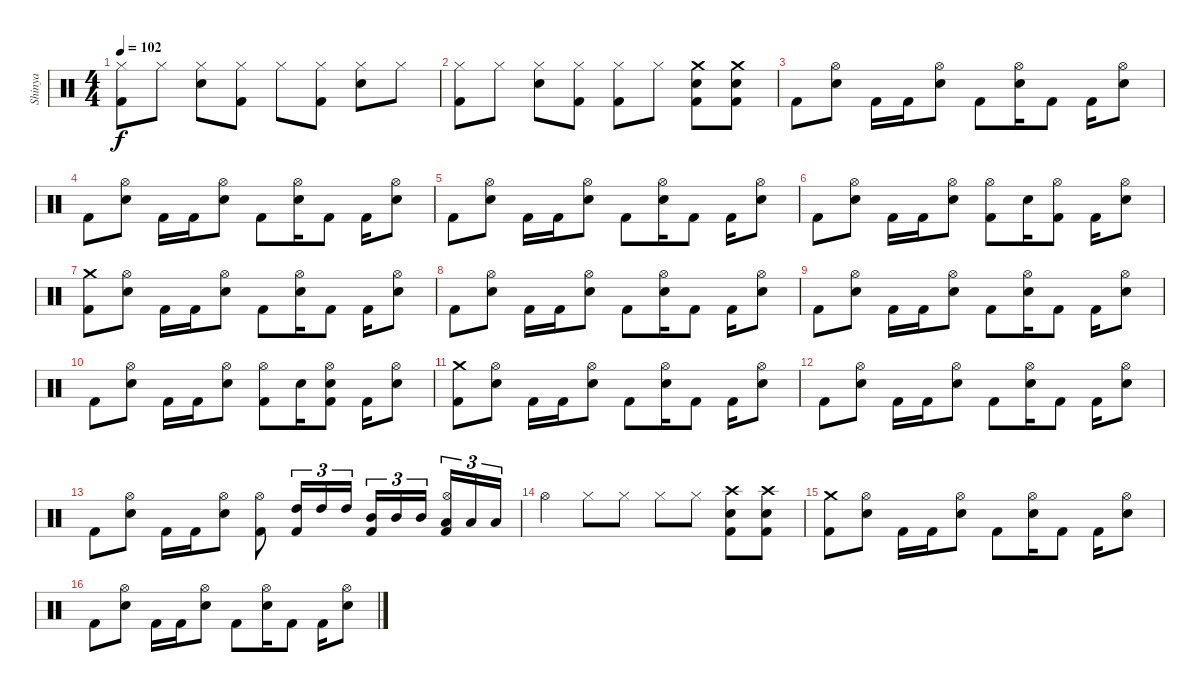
\track ("Shinya" "Shinya") {instrument percussion}
\staff {score}
\articulation defaults
\ts (4 4)
\tempo 102
\clef neutral
\ks c
("Hi-Hat (closed)" "Kick (hit) 2").8{dy f} "Hi-Hat (closed)".8 ("Hi-Hat (closed)" "Electric Snare (hit)").8 ("Hi-Hat (closed)" "Kick (hit) 2").8 "Hi-Hat (closed)".8 ("Hi-Hat (closed)" "Kick (hit) 2").8 ("Hi-Hat (closed)" "Electric Snare (hit)").8 "Hi-Hat (closed)".8 |
("Hi-Hat (closed)" "Kick (hit) 2").8 "Hi-Hat (closed)".8 ("Hi-Hat (closed)" "Electric Snare (hit)").8 ("Hi-Hat (closed)" "Kick (hit) 2").8 ("Hi-Hat (closed)" "Kick (hit) 2").8 "Hi-Hat (closed)".8 ("Crash medium (hit)" "Electric Snare (hit)" "Kick (hit) 2").8 ("Crash medium (hit)" "Electric Snare (hit)" "Kick (hit) 2").8 |
"Kick (hit) 2".8 ("Hi-Hat (open)" "Electric Snare (hit)").8 "Kick (hit) 2".16 "Kick (hit) 2".16 ("Hi-Hat (open)" "Electric Snare (hit)").8 "Kick (hit) 2".8 ("Hi-Hat (open)" "Electric Snare (hit)").16 "Kick (hit) 2".8 "Kick (hit) 2".16 ("Hi-Hat (open)" "Electric Snare (hit)").8 |
"Kick (hit) 2".8 ("Hi-Hat (open)" "Electric Snare (hit)").8 "Kick (hit) 2".16 "Kick (hit) 2".16 ("Hi-Hat (open)" "Electric Snare (hit)").8 "Kick (hit) 2".8 ("Hi-Hat (open)" "Electric Snare (hit)").16 "Kick (hit) 2".8 "Kick (hit) 2".16 ("Hi-Hat (open)" "Electric Snare (hit)").8 |
"Kick (hit) 2".8 ("Hi-Hat (open)" "Electric Snare (hit)").8 "Kick (hit) 2".16 "Kick (hit) 2".16 ("Hi-Hat (open)" "Electric Snare (hit)").8 "Kick (hit) 2".8 ("Hi-Hat (open)" "Electric Snare (hit)").16 "Kick (hit) 2".8 "Kick (hit) 2".16 ("Hi-Hat (open)" "Electric Snare (hit)").8 |
"Kick (hit) 2".8 ("Hi-Hat (open)" "Electric Snare (hit)").8 "Kick (hit) 2".16 "Kick (hit) 2".16 ("Hi-Hat (open)" "Electric Snare (hit)").8 ("Hi-Hat (open)" "Kick (hit) 2").8 "Electric Snare (hit)".16 ("Hi-Hat (open)" "Kick (hit) 2").8 "Kick (hit) 2".16 ("Hi-Hat (open)" "Electric Snare (hit)").8 |
("Crash medium (hit)" "Kick (hit) 2").8 ("Hi-Hat (open)" "Electric Snare (hit)").8 "Kick (hit) 2".16 "Kick (hit) 2".16 ("Hi-Hat (open)" "Electric Snare (hit)").8 "Kick (hit) 2".8 ("Hi-Hat (open)" "Electric Snare (hit)").16 "Kick (hit) 2".8 "Kick (hit) 2".16 ("Hi-Hat (open)" "Electric Snare (hit)").8 |
"Kick (hit) 2".8 ("Hi-Hat (open)" "Electric Snare (hit)").8 "Kick (hit) 2".16 "Kick (hit) 2".16 ("Hi-Hat (open)" "Electric Snare (hit)").8 "Kick (hit) 2".8 ("Hi-Hat (open)" "Electric Snare (hit)").16 "Kick (hit) 2".8 "Kick (hit) 2".16 ("Hi-Hat (open)" "Electric Snare (hit)").8 |
"Kick (hit) 2".8 ("Hi-Hat (open)" "Electric Snare (hit)").8 "Kick (hit) 2".16 "Kick (hit) 2".16 ("Hi-Hat (open)" "Electric Snare (hit)").8 "Kick (hit) 2".8 ("Hi-Hat (open)" "Electric Snare (hit)").16 "Kick (hit) 2".8 "Kick (hit) 2".16 ("Hi-Hat (open)" "Electric Snare (hit)").8 |
"Kick (hit) 2".8 ("Hi-Hat (open)" "Electric Snare (hit)").8 "Kick (hit) 2".16 "Kick (hit) 2".16 ("Hi-Hat (open)" "Electric Snare (hit)").8 ("Hi-Hat (open)" "Kick (hit) 2").8 "Electric Snare (hit)".16 ("Hi-Hat (open)" "Electric Snare (hit)" "Kick (hit) 2").8 "Kick (hit) 2".16 ("Hi-Hat (open)" "Electric Snare (hit)").8 |
("Crash medium (hit)" "Kick (hit) 2").8 ("Hi-Hat (open)" "Electric Snare (hit)").8 "Kick (hit) 2".16 "Kick (hit) 2".16 ("Hi-Hat (open)" "Electric Snare (hit)").8 "Kick (hit) 2".8 ("Hi-Hat (open)" "Electric Snare (hit)").16 "Kick (hit) 2".8 "Kick (hit) 2".16 ("Hi-Hat (open)" "Electric Snare (hit)").8 |
"Kick (hit) 2".8 ("Hi-Hat (open)" "Electric Snare (hit)").8 "Kick (hit) 2".16 "Kick (hit) 2".16 ("Hi-Hat (open)" "Electric Snare (hit)").8 "Kick (hit) 2".8 ("Hi-Hat (open)" "Electric Snare (hit)").16 "Kick (hit) 2".8 "Kick (hit) 2".16 ("Hi-Hat (open)" "Electric Snare (hit)").8 |
"Kick (hit) 2".8 ("Hi-Hat (open)" "Electric Snare (hit)").8 "Kick (hit) 2".16 "Kick (hit) 2".16 ("Hi-Hat (open)" "Electric Snare (hit)").8 ("Hi-Hat (open)" "Kick (hit) 2").8 ("High Tom (hit)" "Kick (hit) 2").16{tu (3 2)} "High Tom (hit)".16{tu (3 2)} "High Tom (hit)".16{tu (3 2)} ("Mid Tom (hit)" "Kick (hit) 2").16{tu (3 2)} "Mid Tom (hit)".16{tu (3 2)} "Mid Tom (hit)".16{tu (3 2) beam splitsecondary} ("Hi-Hat (open)" "Low Tom (hit)" "Kick (hit) 2").16{tu (3 2)} "Low Tom (hit)".16{tu (3 2)} "Low Tom (hit)".16{tu (3 2)} |
"Hi-Hat (open)".4 "Hi-Hat (closed)".8 "Hi-Hat (closed)".8 "Hi-Hat (closed)".8 "Hi-Hat (closed)".8 ("Crash high (hit)" "Electric Snare (hit)" "Kick (hit) 2").8 ("Crash high (hit)" "Electric Snare (hit)" "Kick (hit) 2").8 |
("Crash medium (hit)" "Kick (hit) 2").8 ("Hi-Hat (open)" "Electric Snare (hit)").8 "Kick (hit) 2".16 "Kick (hit) 2".16 ("Hi-Hat (open)" "Electric Snare (hit)").8 "Kick (hit) 2".8 ("Hi-Hat (open)" "Electric Snare (hit)").16 "Kick (hit) 2".8 "Kick (hit) 2".16 ("Hi-Hat (open)" "Electric Snare (hit)").8 |
"Kick (hit) 2".8 ("Hi-Hat (open)" "Electric Snare (hit)").8 "Kick (hit) 2".16 "Kick (hit) 2".16 ("Hi-Hat (open)" "Electric Snare (hit)").8 "Kick (hit) 2".8 ("Hi-Hat (open)" "Electric Snare (hit)").16 "Kick (hit) 2".8 "Kick (hit) 2".16 ("Hi-Hat (open)" "Electric Snare (hit)").8
